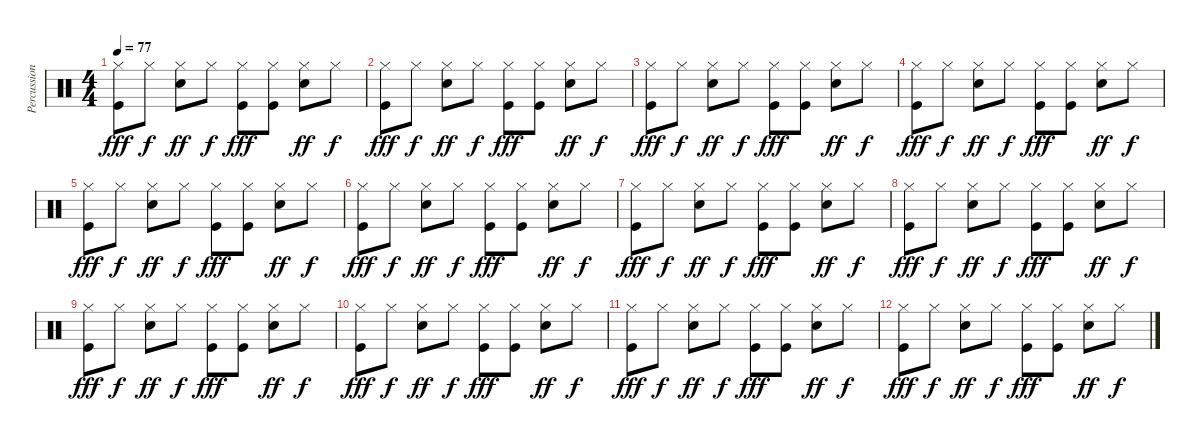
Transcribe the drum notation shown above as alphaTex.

\track ("Percussion" "Percussion") {instrument percussion}
\staff {score}
\articulation defaults
\ts (4 4)
\tempo 77
\clef neutral
\ks c
("Hi-Hat (closed)" "Kick (hit)").8{dy fff} "Hi-Hat (closed)".8{dy f} ("Hi-Hat (closed)" "Electric Snare (hit)").8{dy ff} "Hi-Hat (closed)".8{dy f} ("Hi-Hat (closed)" "Kick (hit)").8{dy fff} ("Hi-Hat (closed)" "Kick (hit)").8 ("Hi-Hat (closed)" "Electric Snare (hit)").8{dy ff} "Hi-Hat (closed)".8{dy f} |
("Hi-Hat (closed)" "Kick (hit)").8{dy fff} "Hi-Hat (closed)".8{dy f} ("Hi-Hat (closed)" "Electric Snare (hit)").8{dy ff} "Hi-Hat (closed)".8{dy f} ("Hi-Hat (closed)" "Kick (hit)").8{dy fff} ("Hi-Hat (closed)" "Kick (hit)").8 ("Hi-Hat (closed)" "Electric Snare (hit)").8{dy ff} "Hi-Hat (closed)".8{dy f} |
("Hi-Hat (closed)" "Kick (hit)").8{dy fff} "Hi-Hat (closed)".8{dy f} ("Hi-Hat (closed)" "Electric Snare (hit)").8{dy ff} "Hi-Hat (closed)".8{dy f} ("Hi-Hat (closed)" "Kick (hit)").8{dy fff} ("Hi-Hat (closed)" "Kick (hit)").8 ("Hi-Hat (closed)" "Electric Snare (hit)").8{dy ff} "Hi-Hat (closed)".8{dy f} |
("Hi-Hat (closed)" "Kick (hit)").8{dy fff} "Hi-Hat (closed)".8{dy f} ("Hi-Hat (closed)" "Electric Snare (hit)").8{dy ff} "Hi-Hat (closed)".8{dy f} ("Hi-Hat (closed)" "Kick (hit)").8{dy fff} ("Hi-Hat (closed)" "Kick (hit)").8 ("Hi-Hat (closed)" "Electric Snare (hit)").8{dy ff} "Hi-Hat (closed)".8{dy f} |
("Hi-Hat (closed)" "Kick (hit)").8{dy fff} "Hi-Hat (closed)".8{dy f} ("Hi-Hat (closed)" "Electric Snare (hit)").8{dy ff} "Hi-Hat (closed)".8{dy f} ("Hi-Hat (closed)" "Kick (hit)").8{dy fff} ("Hi-Hat (closed)" "Kick (hit)").8 ("Hi-Hat (closed)" "Electric Snare (hit)").8{dy ff} "Hi-Hat (closed)".8{dy f} |
("Hi-Hat (closed)" "Kick (hit)").8{dy fff} "Hi-Hat (closed)".8{dy f} ("Hi-Hat (closed)" "Electric Snare (hit)").8{dy ff} "Hi-Hat (closed)".8{dy f} ("Hi-Hat (closed)" "Kick (hit)").8{dy fff} ("Hi-Hat (closed)" "Kick (hit)").8 ("Hi-Hat (closed)" "Electric Snare (hit)").8{dy ff} "Hi-Hat (closed)".8{dy f} |
("Hi-Hat (closed)" "Kick (hit)").8{dy fff} "Hi-Hat (closed)".8{dy f} ("Hi-Hat (closed)" "Electric Snare (hit)").8{dy ff} "Hi-Hat (closed)".8{dy f} ("Hi-Hat (closed)" "Kick (hit)").8{dy fff} ("Hi-Hat (closed)" "Kick (hit)").8 ("Hi-Hat (closed)" "Electric Snare (hit)").8{dy ff} "Hi-Hat (closed)".8{dy f} |
("Hi-Hat (closed)" "Kick (hit)").8{dy fff} "Hi-Hat (closed)".8{dy f} ("Hi-Hat (closed)" "Electric Snare (hit)").8{dy ff} "Hi-Hat (closed)".8{dy f} ("Hi-Hat (closed)" "Kick (hit)").8{dy fff} ("Hi-Hat (closed)" "Kick (hit)").8 ("Hi-Hat (closed)" "Electric Snare (hit)").8{dy ff} "Hi-Hat (closed)".8{dy f} |
("Hi-Hat (closed)" "Kick (hit)").8{dy fff} "Hi-Hat (closed)".8{dy f} ("Hi-Hat (closed)" "Electric Snare (hit)").8{dy ff} "Hi-Hat (closed)".8{dy f} ("Hi-Hat (closed)" "Kick (hit)").8{dy fff} ("Hi-Hat (closed)" "Kick (hit)").8 ("Hi-Hat (closed)" "Electric Snare (hit)").8{dy ff} "Hi-Hat (closed)".8{dy f} |
("Hi-Hat (closed)" "Kick (hit)").8{dy fff} "Hi-Hat (closed)".8{dy f} ("Hi-Hat (closed)" "Electric Snare (hit)").8{dy ff} "Hi-Hat (closed)".8{dy f} ("Hi-Hat (closed)" "Kick (hit)").8{dy fff} ("Hi-Hat (closed)" "Kick (hit)").8 ("Hi-Hat (closed)" "Electric Snare (hit)").8{dy ff} "Hi-Hat (closed)".8{dy f} |
("Hi-Hat (closed)" "Kick (hit)").8{dy fff} "Hi-Hat (closed)".8{dy f} ("Hi-Hat (closed)" "Electric Snare (hit)").8{dy ff} "Hi-Hat (closed)".8{dy f} ("Hi-Hat (closed)" "Kick (hit)").8{dy fff} ("Hi-Hat (closed)" "Kick (hit)").8 ("Hi-Hat (closed)" "Electric Snare (hit)").8{dy ff} "Hi-Hat (closed)".8{dy f} |
("Hi-Hat (closed)" "Kick (hit)").8{dy fff} "Hi-Hat (closed)".8{dy f} ("Hi-Hat (closed)" "Electric Snare (hit)").8{dy ff} "Hi-Hat (closed)".8{dy f} ("Hi-Hat (closed)" "Kick (hit)").8{dy fff} ("Hi-Hat (closed)" "Kick (hit)").8 ("Hi-Hat (closed)" "Electric Snare (hit)").8{dy ff} "Hi-Hat (closed)".8{dy f}
